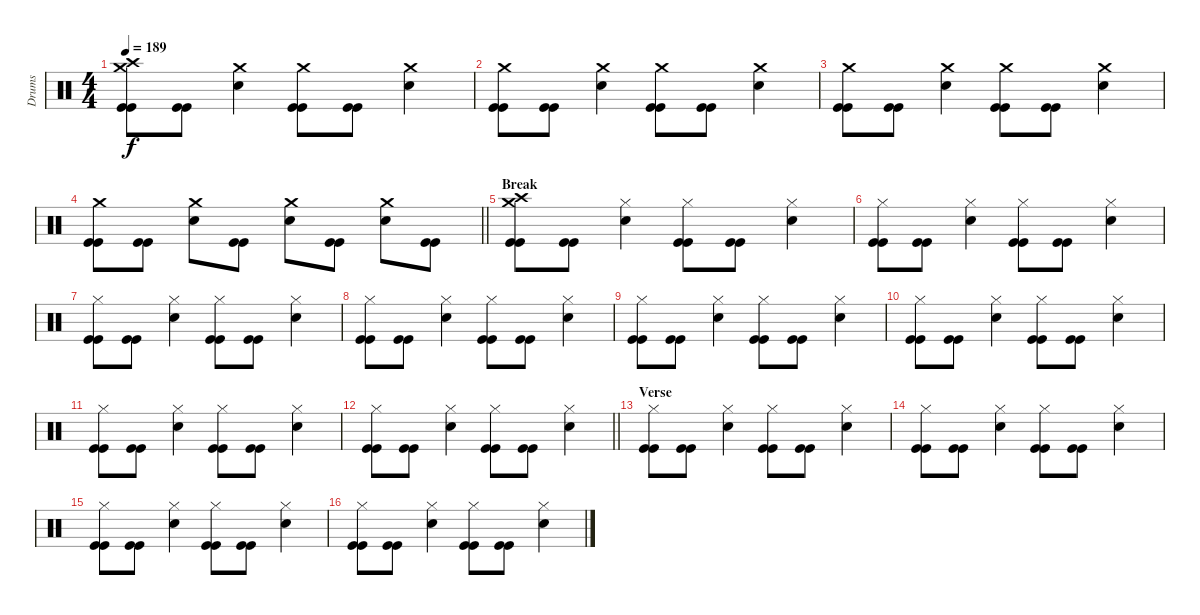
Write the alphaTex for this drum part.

\track ("Drums" "Drums") {instrument percussion}
\staff {score}
\articulation defaults
\ts (4 4)
\tempo 189
\clef neutral
\ks c
("Crash high (hit)" "Crash medium (hit)" "Kick (hit)" "Kick (hit)").8{dy f} ("Kick (hit)" "Kick (hit)").8 ("Crash medium (hit)" "Electric Snare (hit)").4 ("Crash medium (hit)" "Kick (hit)" "Kick (hit)").8 ("Kick (hit)" "Kick (hit)").8 ("Crash medium (hit)" "Electric Snare (hit)").4 |
("Crash medium (hit)" "Kick (hit)" "Kick (hit)").8 ("Kick (hit)" "Kick (hit)").8 ("Crash medium (hit)" "Electric Snare (hit)").4 ("Crash medium (hit)" "Kick (hit)" "Kick (hit)").8 ("Kick (hit)" "Kick (hit)").8 ("Crash medium (hit)" "Electric Snare (hit)").4 |
("Crash medium (hit)" "Kick (hit)" "Kick (hit)").8 ("Kick (hit)" "Kick (hit)").8 ("Crash medium (hit)" "Electric Snare (hit)").4 ("Crash medium (hit)" "Kick (hit)" "Kick (hit)").8 ("Kick (hit)" "Kick (hit)").8 ("Crash medium (hit)" "Electric Snare (hit)").4 |
\barLineRight lightlight
("Crash medium (hit)" "Kick (hit)" "Kick (hit)").8 ("Kick (hit)" "Kick (hit)").8 ("Crash medium (hit)" "Electric Snare (hit)").8 ("Kick (hit)" "Kick (hit)").8 ("Crash medium (hit)" "Electric Snare (hit)").8 ("Kick (hit)" "Kick (hit)").8 ("Crash medium (hit)" "Electric Snare (hit)").8 ("Kick (hit)" "Kick (hit)").8 |
\section ("" "Break")
("Crash high (hit)" "Crash medium (hit)" "Kick (hit)" "Kick (hit)").8 ("Kick (hit)" "Kick (hit)").8 ("Hi-Hat (closed)" "Electric Snare (hit)").4 ("Hi-Hat (closed)" "Kick (hit)" "Kick (hit)").8 ("Kick (hit)" "Kick (hit)").8 ("Hi-Hat (closed)" "Electric Snare (hit)").4 |
("Hi-Hat (closed)" "Kick (hit)" "Kick (hit)").8 ("Kick (hit)" "Kick (hit)").8 ("Hi-Hat (closed)" "Electric Snare (hit)").4 ("Hi-Hat (closed)" "Kick (hit)" "Kick (hit)").8 ("Kick (hit)" "Kick (hit)").8 ("Hi-Hat (closed)" "Electric Snare (hit)").4 |
("Hi-Hat (closed)" "Kick (hit)" "Kick (hit)").8 ("Kick (hit)" "Kick (hit)").8 ("Hi-Hat (closed)" "Electric Snare (hit)").4 ("Hi-Hat (closed)" "Kick (hit)" "Kick (hit)").8 ("Kick (hit)" "Kick (hit)").8 ("Hi-Hat (closed)" "Electric Snare (hit)").4 |
("Hi-Hat (closed)" "Kick (hit)" "Kick (hit)").8 ("Kick (hit)" "Kick (hit)").8 ("Hi-Hat (closed)" "Electric Snare (hit)").4 ("Hi-Hat (closed)" "Kick (hit)" "Kick (hit)").8 ("Kick (hit)" "Kick (hit)").8 ("Hi-Hat (closed)" "Electric Snare (hit)").4 |
("Hi-Hat (closed)" "Kick (hit)" "Kick (hit)").8 ("Kick (hit)" "Kick (hit)").8 ("Hi-Hat (closed)" "Electric Snare (hit)").4 ("Hi-Hat (closed)" "Kick (hit)" "Kick (hit)").8 ("Kick (hit)" "Kick (hit)").8 ("Hi-Hat (closed)" "Electric Snare (hit)").4 |
("Hi-Hat (closed)" "Kick (hit)" "Kick (hit)").8 ("Kick (hit)" "Kick (hit)").8 ("Hi-Hat (closed)" "Electric Snare (hit)").4 ("Hi-Hat (closed)" "Kick (hit)" "Kick (hit)").8 ("Kick (hit)" "Kick (hit)").8 ("Hi-Hat (closed)" "Electric Snare (hit)").4 |
("Hi-Hat (closed)" "Kick (hit)" "Kick (hit)").8 ("Kick (hit)" "Kick (hit)").8 ("Hi-Hat (closed)" "Electric Snare (hit)").4 ("Hi-Hat (closed)" "Kick (hit)" "Kick (hit)").8 ("Kick (hit)" "Kick (hit)").8 ("Hi-Hat (closed)" "Electric Snare (hit)").4 |
\barLineRight lightlight
("Hi-Hat (closed)" "Kick (hit)" "Kick (hit)").8 ("Kick (hit)" "Kick (hit)").8 ("Hi-Hat (closed)" "Electric Snare (hit)").4 ("Hi-Hat (closed)" "Kick (hit)" "Kick (hit)").8 ("Kick (hit)" "Kick (hit)").8 ("Hi-Hat (closed)" "Electric Snare (hit)").4 |
\section ("" "Verse")
("Hi-Hat (closed)" "Kick (hit)" "Kick (hit)").8 ("Kick (hit)" "Kick (hit)").8 ("Hi-Hat (closed)" "Electric Snare (hit)").4 ("Hi-Hat (closed)" "Kick (hit)" "Kick (hit)").8 ("Kick (hit)" "Kick (hit)").8 ("Hi-Hat (closed)" "Electric Snare (hit)").4 |
("Hi-Hat (closed)" "Kick (hit)" "Kick (hit)").8 ("Kick (hit)" "Kick (hit)").8 ("Hi-Hat (closed)" "Electric Snare (hit)").4 ("Hi-Hat (closed)" "Kick (hit)" "Kick (hit)").8 ("Kick (hit)" "Kick (hit)").8 ("Hi-Hat (closed)" "Electric Snare (hit)").4 |
("Hi-Hat (closed)" "Kick (hit)" "Kick (hit)").8 ("Kick (hit)" "Kick (hit)").8 ("Hi-Hat (closed)" "Electric Snare (hit)").4 ("Hi-Hat (closed)" "Kick (hit)" "Kick (hit)").8 ("Kick (hit)" "Kick (hit)").8 ("Hi-Hat (closed)" "Electric Snare (hit)").4 |
("Hi-Hat (closed)" "Kick (hit)" "Kick (hit)").8 ("Kick (hit)" "Kick (hit)").8 ("Hi-Hat (closed)" "Electric Snare (hit)").4 ("Hi-Hat (closed)" "Kick (hit)" "Kick (hit)").8 ("Kick (hit)" "Kick (hit)").8 ("Hi-Hat (closed)" "Electric Snare (hit)").4
